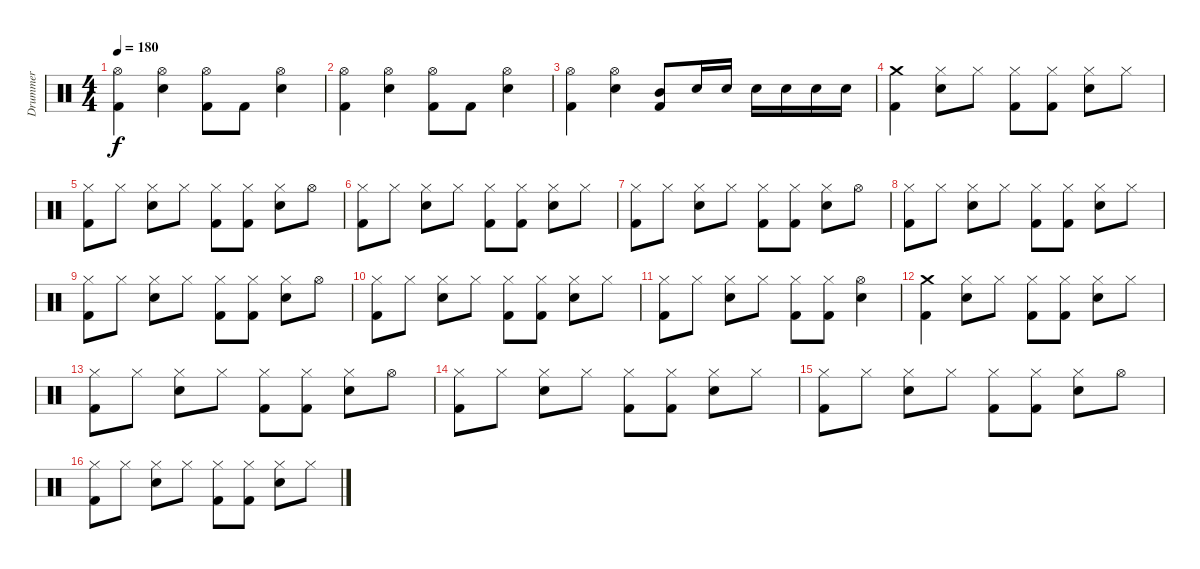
\track ("Drummer" "Drummer") {instrument percussion}
\staff {score}
\articulation defaults
\ts (4 4)
\tempo 180
\clef neutral
\ks c
("Hi-Hat (open)" "Kick (hit) 2").4{dy f} ("Hi-Hat (open)" "Electric Snare (hit)").4 ("Hi-Hat (open)" "Kick (hit) 2").8 "Kick (hit) 2".8 ("Hi-Hat (open)" "Electric Snare (hit)").4 |
("Hi-Hat (open)" "Kick (hit) 2").4 ("Hi-Hat (open)" "Electric Snare (hit)").4 ("Hi-Hat (open)" "Kick (hit) 2").8 "Kick (hit) 2".8 ("Hi-Hat (open)" "Electric Snare (hit)").4 |
("Hi-Hat (open)" "Kick (hit) 2").4 ("Hi-Hat (open)" "Electric Snare (hit)").4 ("Mid Tom (hit)" "Kick (hit) 2").8 "Electric Snare (hit)".16 "Electric Snare (hit)".16 "Electric Snare (hit)".16 "Electric Snare (hit)".16 "Electric Snare (hit)".16 "Electric Snare (hit)".16 |
("Crash medium (hit)" "Kick (hit) 2").4 ("Hi-Hat (closed)" "Electric Snare (hit)").8 "Hi-Hat (closed)".8 ("Hi-Hat (closed)" "Kick (hit) 2").8 ("Hi-Hat (closed)" "Kick (hit) 2").8 ("Hi-Hat (closed)" "Electric Snare (hit)").8 "Hi-Hat (closed)".8 |
("Hi-Hat (closed)" "Kick (hit) 2").8 "Hi-Hat (closed)".8 ("Hi-Hat (closed)" "Electric Snare (hit)").8 "Hi-Hat (closed)".8 ("Hi-Hat (closed)" "Kick (hit) 2").8 ("Hi-Hat (closed)" "Kick (hit) 2").8 ("Hi-Hat (closed)" "Electric Snare (hit)").8 "Hi-Hat (open)".8 |
("Hi-Hat (closed)" "Kick (hit) 2").8 "Hi-Hat (closed)".8 ("Hi-Hat (closed)" "Electric Snare (hit)").8 "Hi-Hat (closed)".8 ("Hi-Hat (closed)" "Kick (hit) 2").8 ("Hi-Hat (closed)" "Kick (hit) 2").8 ("Hi-Hat (closed)" "Electric Snare (hit)").8 "Hi-Hat (closed)".8 |
("Hi-Hat (closed)" "Kick (hit) 2").8 "Hi-Hat (closed)".8 ("Hi-Hat (closed)" "Electric Snare (hit)").8 "Hi-Hat (closed)".8 ("Hi-Hat (closed)" "Kick (hit) 2").8 ("Hi-Hat (closed)" "Kick (hit) 2").8 ("Hi-Hat (closed)" "Electric Snare (hit)").8 "Hi-Hat (open)".8 |
("Hi-Hat (closed)" "Kick (hit) 2").8 "Hi-Hat (closed)".8 ("Hi-Hat (closed)" "Electric Snare (hit)").8 "Hi-Hat (closed)".8 ("Hi-Hat (closed)" "Kick (hit) 2").8 ("Hi-Hat (closed)" "Kick (hit) 2").8 ("Hi-Hat (closed)" "Electric Snare (hit)").8 "Hi-Hat (closed)".8 |
("Hi-Hat (closed)" "Kick (hit) 2").8 "Hi-Hat (closed)".8 ("Hi-Hat (closed)" "Electric Snare (hit)").8 "Hi-Hat (closed)".8 ("Hi-Hat (closed)" "Kick (hit) 2").8 ("Hi-Hat (closed)" "Kick (hit) 2").8 ("Hi-Hat (closed)" "Electric Snare (hit)").8 "Hi-Hat (open)".8 |
("Hi-Hat (closed)" "Kick (hit) 2").8 "Hi-Hat (closed)".8 ("Hi-Hat (closed)" "Electric Snare (hit)").8 "Hi-Hat (closed)".8 ("Hi-Hat (closed)" "Kick (hit) 2").8 ("Hi-Hat (closed)" "Kick (hit) 2").8 ("Hi-Hat (closed)" "Electric Snare (hit)").8 "Hi-Hat (closed)".8 |
("Hi-Hat (closed)" "Kick (hit) 2").8 "Hi-Hat (closed)".8 ("Hi-Hat (closed)" "Electric Snare (hit)").8 "Hi-Hat (closed)".8 ("Hi-Hat (closed)" "Kick (hit) 2").8 ("Hi-Hat (closed)" "Kick (hit) 2").8 ("Hi-Hat (open)" "Electric Snare (hit)").4 |
("Crash medium (hit)" "Kick (hit) 2").4 ("Hi-Hat (closed)" "Electric Snare (hit)").8 "Hi-Hat (closed)".8 ("Hi-Hat (closed)" "Kick (hit) 2").8 ("Hi-Hat (closed)" "Kick (hit) 2").8 ("Hi-Hat (closed)" "Electric Snare (hit)").8 "Hi-Hat (closed)".8 |
("Hi-Hat (closed)" "Kick (hit) 2").8 "Hi-Hat (closed)".8 ("Hi-Hat (closed)" "Electric Snare (hit)").8 "Hi-Hat (closed)".8 ("Hi-Hat (closed)" "Kick (hit) 2").8 ("Hi-Hat (closed)" "Kick (hit) 2").8 ("Hi-Hat (closed)" "Electric Snare (hit)").8 "Hi-Hat (open)".8 |
("Hi-Hat (closed)" "Kick (hit) 2").8 "Hi-Hat (closed)".8 ("Hi-Hat (closed)" "Electric Snare (hit)").8 "Hi-Hat (closed)".8 ("Hi-Hat (closed)" "Kick (hit) 2").8 ("Hi-Hat (closed)" "Kick (hit) 2").8 ("Hi-Hat (closed)" "Electric Snare (hit)").8 "Hi-Hat (closed)".8 |
("Hi-Hat (closed)" "Kick (hit) 2").8 "Hi-Hat (closed)".8 ("Hi-Hat (closed)" "Electric Snare (hit)").8 "Hi-Hat (closed)".8 ("Hi-Hat (closed)" "Kick (hit) 2").8 ("Hi-Hat (closed)" "Kick (hit) 2").8 ("Hi-Hat (closed)" "Electric Snare (hit)").8 "Hi-Hat (open)".8 |
("Hi-Hat (closed)" "Kick (hit) 2").8 "Hi-Hat (closed)".8 ("Hi-Hat (closed)" "Electric Snare (hit)").8 "Hi-Hat (closed)".8 ("Hi-Hat (closed)" "Kick (hit) 2").8 ("Hi-Hat (closed)" "Kick (hit) 2").8 ("Hi-Hat (closed)" "Electric Snare (hit)").8 "Hi-Hat (closed)".8
